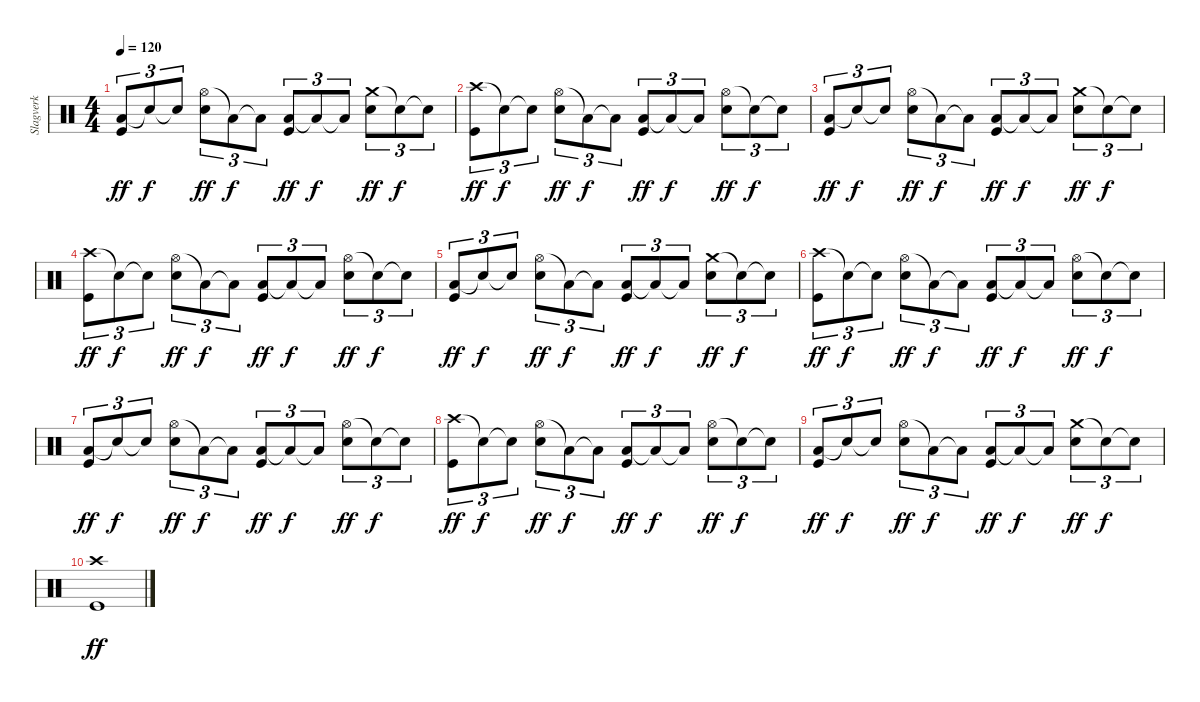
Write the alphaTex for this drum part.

\track ("Slagverk" "Slagverk") {instrument percussion}
\staff {score}
\articulation defaults
\ts (4 4)
\tempo 120
\clef neutral
\ks c
("Low Floor Tom (hit)" "Kick (hit)").8{tu (3 2) dy ff} "Snare (hit)"{t}.8{tu (3 2) dy f} "Snare (hit)"{t}.8{tu (3 2)} ("Hi-Hat (open)" "Snare (hit) 2").8{tu (3 2) dy ff} "Low Floor Tom (hit)"{t}.8{tu (3 2) dy f} "Low Floor Tom (hit)"{t}.8{tu (3 2)} ("Low Floor Tom (hit)" "Kick (hit)").8{tu (3 2) dy ff} "Low Floor Tom (hit)"{t}.8{tu (3 2) dy f} "Low Floor Tom (hit)"{t}.8{tu (3 2)} ("Crash medium (hit)" "Snare (hit) 2").8{tu (3 2) dy ff} "Snare (hit)"{t}.8{tu (3 2) dy f} "Snare (hit)"{t}.8{tu (3 2)} |
("Crash high (hit)" "Kick (hit)").8{tu (3 2) dy ff} "Snare (hit)"{t}.8{tu (3 2) dy f} "Snare (hit)"{t}.8{tu (3 2)} ("Hi-Hat (open)" "Snare (hit) 2").8{tu (3 2) dy ff} "Low Floor Tom (hit)"{t}.8{tu (3 2) dy f} "Low Floor Tom (hit)"{t}.8{tu (3 2)} ("Low Floor Tom (hit)" "Kick (hit)").8{tu (3 2) dy ff} "Low Floor Tom (hit)"{t}.8{tu (3 2) dy f} "Low Floor Tom (hit)"{t}.8{tu (3 2)} ("Hi-Hat (open)" "Snare (hit) 2").8{tu (3 2) dy ff} "Snare (hit)"{t}.8{tu (3 2) dy f} "Snare (hit)"{t}.8{tu (3 2)} |
("Low Floor Tom (hit)" "Kick (hit)").8{tu (3 2) dy ff} "Snare (hit)"{t}.8{tu (3 2) dy f} "Snare (hit)"{t}.8{tu (3 2)} ("Hi-Hat (open)" "Snare (hit) 2").8{tu (3 2) dy ff} "Low Floor Tom (hit)"{t}.8{tu (3 2) dy f} "Low Floor Tom (hit)"{t}.8{tu (3 2)} ("Low Floor Tom (hit)" "Kick (hit)").8{tu (3 2) dy ff} "Low Floor Tom (hit)"{t}.8{tu (3 2) dy f} "Low Floor Tom (hit)"{t}.8{tu (3 2)} ("Crash medium (hit)" "Snare (hit) 2").8{tu (3 2) dy ff} "Snare (hit)"{t}.8{tu (3 2) dy f} "Snare (hit)"{t}.8{tu (3 2)} |
("Crash high (hit)" "Kick (hit)").8{tu (3 2) dy ff} "Snare (hit)"{t}.8{tu (3 2) dy f} "Snare (hit)"{t}.8{tu (3 2)} ("Hi-Hat (open)" "Snare (hit) 2").8{tu (3 2) dy ff} "Low Floor Tom (hit)"{t}.8{tu (3 2) dy f} "Low Floor Tom (hit)"{t}.8{tu (3 2)} ("Low Floor Tom (hit)" "Kick (hit)").8{tu (3 2) dy ff} "Low Floor Tom (hit)"{t}.8{tu (3 2) dy f} "Low Floor Tom (hit)"{t}.8{tu (3 2)} ("Hi-Hat (open)" "Snare (hit) 2").8{tu (3 2) dy ff} "Snare (hit)"{t}.8{tu (3 2) dy f} "Snare (hit)"{t}.8{tu (3 2)} |
("Low Floor Tom (hit)" "Kick (hit)").8{tu (3 2) dy ff} "Snare (hit)"{t}.8{tu (3 2) dy f} "Snare (hit)"{t}.8{tu (3 2)} ("Hi-Hat (open)" "Snare (hit) 2").8{tu (3 2) dy ff} "Low Floor Tom (hit)"{t}.8{tu (3 2) dy f} "Low Floor Tom (hit)"{t}.8{tu (3 2)} ("Low Floor Tom (hit)" "Kick (hit)").8{tu (3 2) dy ff} "Low Floor Tom (hit)"{t}.8{tu (3 2) dy f} "Low Floor Tom (hit)"{t}.8{tu (3 2)} ("Crash medium (hit)" "Snare (hit) 2").8{tu (3 2) dy ff} "Snare (hit)"{t}.8{tu (3 2) dy f} "Snare (hit)"{t}.8{tu (3 2)} |
("Crash high (hit)" "Kick (hit)").8{tu (3 2) dy ff} "Snare (hit)"{t}.8{tu (3 2) dy f} "Snare (hit)"{t}.8{tu (3 2)} ("Hi-Hat (open)" "Snare (hit) 2").8{tu (3 2) dy ff} "Low Floor Tom (hit)"{t}.8{tu (3 2) dy f} "Low Floor Tom (hit)"{t}.8{tu (3 2)} ("Low Floor Tom (hit)" "Kick (hit)").8{tu (3 2) dy ff} "Low Floor Tom (hit)"{t}.8{tu (3 2) dy f} "Low Floor Tom (hit)"{t}.8{tu (3 2)} ("Hi-Hat (open)" "Snare (hit) 2").8{tu (3 2) dy ff} "Snare (hit)"{t}.8{tu (3 2) dy f} "Snare (hit)"{t}.8{tu (3 2)} |
("Low Floor Tom (hit)" "Kick (hit)").8{tu (3 2) dy ff} "Snare (hit)"{t}.8{tu (3 2) dy f} "Snare (hit)"{t}.8{tu (3 2)} ("Hi-Hat (open)" "Snare (hit) 2").8{tu (3 2) dy ff} "Low Floor Tom (hit)"{t}.8{tu (3 2) dy f} "Low Floor Tom (hit)"{t}.8{tu (3 2)} ("Low Floor Tom (hit)" "Kick (hit)").8{tu (3 2) dy ff} "Low Floor Tom (hit)"{t}.8{tu (3 2) dy f} "Low Floor Tom (hit)"{t}.8{tu (3 2)} ("Hi-Hat (open)" "Snare (hit) 2").8{tu (3 2) dy ff} "Snare (hit)"{t}.8{tu (3 2) dy f} "Snare (hit)"{t}.8{tu (3 2)} |
("Crash high (hit)" "Kick (hit)").8{tu (3 2) dy ff} "Snare (hit)"{t}.8{tu (3 2) dy f} "Snare (hit)"{t}.8{tu (3 2)} ("Hi-Hat (open)" "Snare (hit) 2").8{tu (3 2) dy ff} "Low Floor Tom (hit)"{t}.8{tu (3 2) dy f} "Low Floor Tom (hit)"{t}.8{tu (3 2)} ("Low Floor Tom (hit)" "Kick (hit)").8{tu (3 2) dy ff} "Low Floor Tom (hit)"{t}.8{tu (3 2) dy f} "Low Floor Tom (hit)"{t}.8{tu (3 2)} ("Hi-Hat (open)" "Snare (hit) 2").8{tu (3 2) dy ff} "Snare (hit)"{t}.8{tu (3 2) dy f} "Snare (hit)"{t}.8{tu (3 2)} |
("Low Floor Tom (hit)" "Kick (hit)").8{tu (3 2) dy ff} "Snare (hit)"{t}.8{tu (3 2) dy f} "Snare (hit)"{t}.8{tu (3 2)} ("Hi-Hat (open)" "Snare (hit) 2").8{tu (3 2) dy ff} "Low Floor Tom (hit)"{t}.8{tu (3 2) dy f} "Low Floor Tom (hit)"{t}.8{tu (3 2)} ("Low Floor Tom (hit)" "Kick (hit)").8{tu (3 2) dy ff} "Low Floor Tom (hit)"{t}.8{tu (3 2) dy f} "Low Floor Tom (hit)"{t}.8{tu (3 2)} ("Crash medium (hit)" "Snare (hit) 2").8{tu (3 2) dy ff} "Snare (hit)"{t}.8{tu (3 2) dy f} "Snare (hit)"{t}.8{tu (3 2)} |
("Crash high (hit)" "Kick (hit)").1{dy ff}
